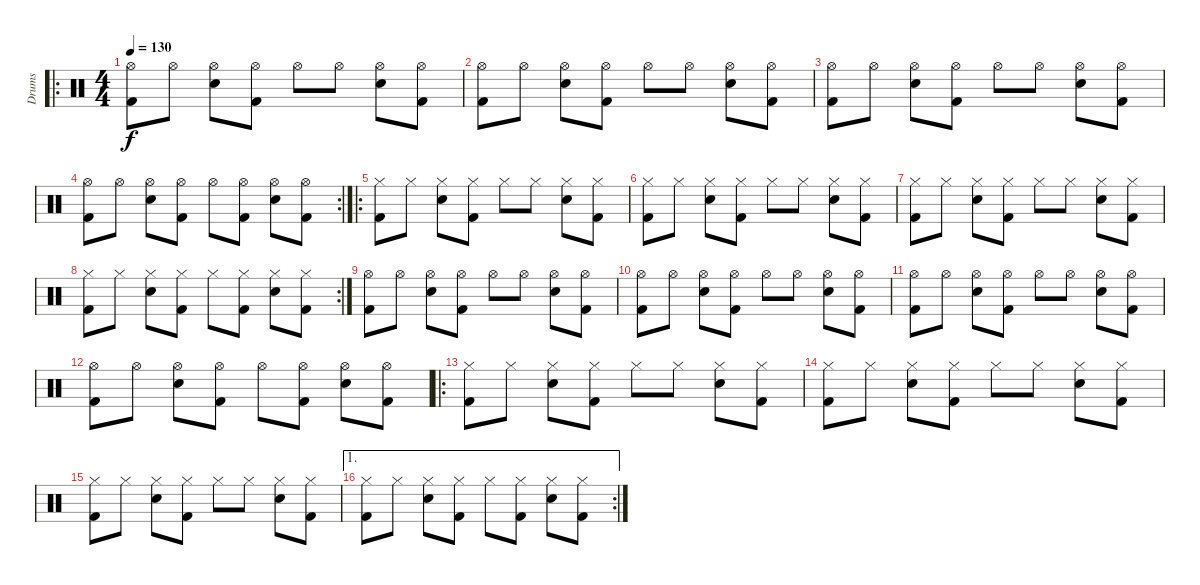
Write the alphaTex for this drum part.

\track ("Drums" "Drums") {instrument percussion}
\staff {score}
\articulation defaults
\ro
\ts (4 4)
\tempo 130
\clef neutral
\ks c
("Hi-Hat (open)" "Kick (hit) 2").8{dy f} "Hi-Hat (open)".8 ("Hi-Hat (open)" "Electric Snare (hit)").8 ("Hi-Hat (open)" "Kick (hit) 2").8 "Hi-Hat (open)".8 "Hi-Hat (open)".8 ("Hi-Hat (open)" "Electric Snare (hit)").8 ("Hi-Hat (open)" "Kick (hit) 2").8 |
("Hi-Hat (open)" "Kick (hit) 2").8 "Hi-Hat (open)".8 ("Hi-Hat (open)" "Electric Snare (hit)").8 ("Hi-Hat (open)" "Kick (hit) 2").8 "Hi-Hat (open)".8 "Hi-Hat (open)".8 ("Hi-Hat (open)" "Electric Snare (hit)").8 ("Hi-Hat (open)" "Kick (hit) 2").8 |
("Hi-Hat (open)" "Kick (hit) 2").8 "Hi-Hat (open)".8 ("Hi-Hat (open)" "Electric Snare (hit)").8 ("Hi-Hat (open)" "Kick (hit) 2").8 "Hi-Hat (open)".8 "Hi-Hat (open)".8 ("Hi-Hat (open)" "Electric Snare (hit)").8 ("Hi-Hat (open)" "Kick (hit) 2").8 |
\rc 2
("Hi-Hat (open)" "Kick (hit) 2").8 "Hi-Hat (open)".8 ("Hi-Hat (open)" "Electric Snare (hit)").8 ("Hi-Hat (open)" "Kick (hit) 2").8 "Hi-Hat (open)".8 ("Hi-Hat (open)" "Kick (hit) 2").8 ("Hi-Hat (open)" "Electric Snare (hit)").8 ("Hi-Hat (open)" "Kick (hit) 2").8 |
\ro
("Hi-Hat (closed)" "Kick (hit) 2").8 "Hi-Hat (closed)".8 ("Hi-Hat (closed)" "Electric Snare (hit)").8 ("Hi-Hat (closed)" "Kick (hit) 2").8 "Hi-Hat (closed)".8 "Hi-Hat (closed)".8 ("Hi-Hat (closed)" "Electric Snare (hit)").8 ("Hi-Hat (closed)" "Kick (hit) 2").8 |
("Hi-Hat (closed)" "Kick (hit) 2").8 "Hi-Hat (closed)".8 ("Hi-Hat (closed)" "Electric Snare (hit)").8 ("Hi-Hat (closed)" "Kick (hit) 2").8 "Hi-Hat (closed)".8 "Hi-Hat (closed)".8 ("Hi-Hat (closed)" "Electric Snare (hit)").8 ("Hi-Hat (closed)" "Kick (hit) 2").8 |
("Hi-Hat (closed)" "Kick (hit) 2").8 "Hi-Hat (closed)".8 ("Hi-Hat (closed)" "Electric Snare (hit)").8 ("Hi-Hat (closed)" "Kick (hit) 2").8 "Hi-Hat (closed)".8 "Hi-Hat (closed)".8 ("Hi-Hat (closed)" "Electric Snare (hit)").8 ("Hi-Hat (closed)" "Kick (hit) 2").8 |
\rc 2
("Hi-Hat (closed)" "Kick (hit) 2").8 "Hi-Hat (closed)".8 ("Hi-Hat (closed)" "Electric Snare (hit)").8 ("Hi-Hat (closed)" "Kick (hit) 2").8 "Hi-Hat (closed)".8 ("Hi-Hat (closed)" "Kick (hit) 2").8 ("Hi-Hat (closed)" "Electric Snare (hit)").8 ("Hi-Hat (closed)" "Kick (hit) 2").8 |
("Hi-Hat (open)" "Kick (hit) 2").8 "Hi-Hat (open)".8 ("Hi-Hat (open)" "Electric Snare (hit)").8 ("Hi-Hat (open)" "Kick (hit) 2").8 "Hi-Hat (open)".8 "Hi-Hat (open)".8 ("Hi-Hat (open)" "Electric Snare (hit)").8 ("Hi-Hat (open)" "Kick (hit) 2").8 |
("Hi-Hat (open)" "Kick (hit) 2").8 "Hi-Hat (open)".8 ("Hi-Hat (open)" "Electric Snare (hit)").8 ("Hi-Hat (open)" "Kick (hit) 2").8 "Hi-Hat (open)".8 "Hi-Hat (open)".8 ("Hi-Hat (open)" "Electric Snare (hit)").8 ("Hi-Hat (open)" "Kick (hit) 2").8 |
("Hi-Hat (open)" "Kick (hit) 2").8 "Hi-Hat (open)".8 ("Hi-Hat (open)" "Electric Snare (hit)").8 ("Hi-Hat (open)" "Kick (hit) 2").8 "Hi-Hat (open)".8 "Hi-Hat (open)".8 ("Hi-Hat (open)" "Electric Snare (hit)").8 ("Hi-Hat (open)" "Kick (hit) 2").8 |
("Hi-Hat (open)" "Kick (hit) 2").8 "Hi-Hat (open)".8 ("Hi-Hat (open)" "Electric Snare (hit)").8 ("Hi-Hat (open)" "Kick (hit) 2").8 "Hi-Hat (open)".8 ("Hi-Hat (open)" "Kick (hit) 2").8 ("Hi-Hat (open)" "Electric Snare (hit)").8 ("Hi-Hat (open)" "Kick (hit) 2").8 |
\ro
("Hi-Hat (closed)" "Kick (hit) 2").8 "Hi-Hat (closed)".8 ("Hi-Hat (closed)" "Electric Snare (hit)").8 ("Hi-Hat (closed)" "Kick (hit) 2").8 "Hi-Hat (closed)".8 "Hi-Hat (closed)".8 ("Hi-Hat (closed)" "Electric Snare (hit)").8 ("Hi-Hat (closed)" "Kick (hit) 2").8 |
("Hi-Hat (closed)" "Kick (hit) 2").8 "Hi-Hat (closed)".8 ("Hi-Hat (closed)" "Electric Snare (hit)").8 ("Hi-Hat (closed)" "Kick (hit) 2").8 "Hi-Hat (closed)".8 "Hi-Hat (closed)".8 ("Hi-Hat (closed)" "Electric Snare (hit)").8 ("Hi-Hat (closed)" "Kick (hit) 2").8 |
("Hi-Hat (closed)" "Kick (hit) 2").8 "Hi-Hat (closed)".8 ("Hi-Hat (closed)" "Electric Snare (hit)").8 ("Hi-Hat (closed)" "Kick (hit) 2").8 "Hi-Hat (closed)".8 "Hi-Hat (closed)".8 ("Hi-Hat (closed)" "Electric Snare (hit)").8 ("Hi-Hat (closed)" "Kick (hit) 2").8 |
\ae 1
\rc 2
("Hi-Hat (closed)" "Kick (hit) 2").8 "Hi-Hat (closed)".8 ("Hi-Hat (closed)" "Electric Snare (hit)").8 ("Hi-Hat (closed)" "Kick (hit) 2").8 "Hi-Hat (closed)".8 ("Hi-Hat (closed)" "Kick (hit) 2").8 ("Hi-Hat (closed)" "Electric Snare (hit)").8 ("Hi-Hat (closed)" "Kick (hit) 2").8
